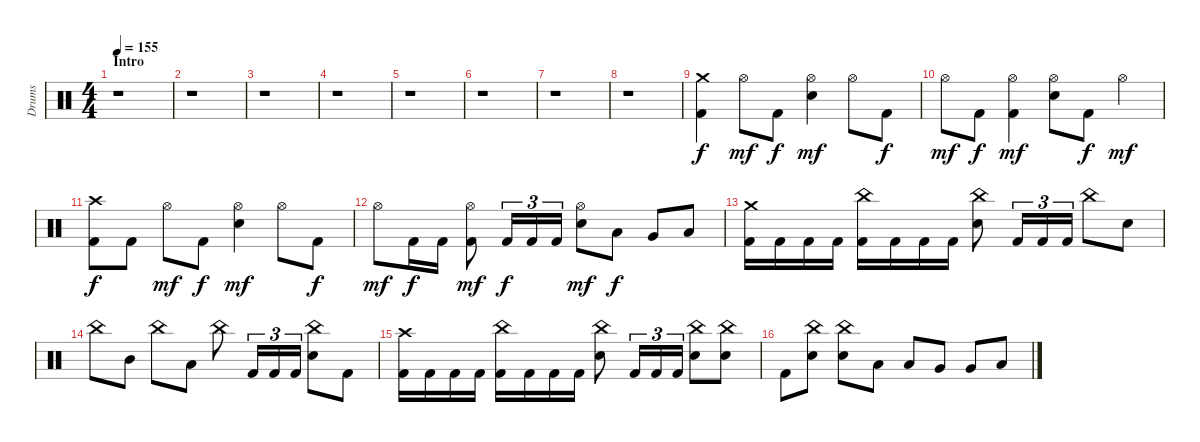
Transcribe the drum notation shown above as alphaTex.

\track ("Drums" "Drums") {instrument percussion}
\staff {score}
\articulation defaults
\ts (4 4)
\section ("" "Intro")
\tempo 155
\clef neutral
\ks c
r.1{dy f} |
r.1 |
r.1 |
r.1 |
r.1 |
r.1 |
r.1 |
r.1 |
("Kick (hit) 2" "Crash medium (hit)").4 "Hi-Hat (open)".8{dy mf} "Kick (hit) 2".8{dy f} ("Hi-Hat (open)" "Electric Snare (hit)").4{dy mf} "Hi-Hat (open)".8 "Kick (hit) 2".8{dy f} |
"Hi-Hat (open)".8{dy mf} "Kick (hit) 2".8{dy f} ("Kick (hit) 2" "Hi-Hat (open)").4{dy mf} ("Hi-Hat (open)" "Electric Snare (hit)").8 "Kick (hit) 2".8{dy f} "Hi-Hat (open)".4{dy mf} |
("Kick (hit) 2" "Crash high (hit)").8{dy f} "Kick (hit) 2".8 "Hi-Hat (open)".8{dy mf} "Kick (hit) 2".8{dy f} ("Hi-Hat (open)" "Electric Snare (hit)").4{dy mf} "Hi-Hat (open)".8 "Kick (hit) 2".8{dy f} |
"Hi-Hat (open)".8{dy mf} "Kick (hit) 2".16{dy f} "Kick (hit) 2".16 ("Kick (hit) 2" "Hi-Hat (open)").8{dy mf} "Kick (hit) 2".16{tu (3 2) dy f} "Kick (hit) 2".16{tu (3 2)} "Kick (hit) 2".16{tu (3 2)} ("Hi-Hat (open)" "Electric Snare (hit)").8{dy mf} "Low Tom (hit)".8{dy f} "Very Low Tom (hit)".8 "Low Floor Tom (hit)".8 |
("Kick (hit) 2" "Crash medium (hit)").16 "Kick (hit) 2".16 "Kick (hit) 2".16 "Kick (hit) 2".16 ("Kick (hit) 2" "China (hit)").16 "Kick (hit) 2".16 "Kick (hit) 2".16 "Kick (hit) 2".16 ("China (hit)" "Electric Snare (hit)").8 "Kick (hit) 2".16{tu (3 2)} "Kick (hit) 2".16{tu (3 2)} "Kick (hit) 2".16{tu (3 2)} "China (hit)".8 "Electric Snare (hit)".8 |
"China (hit)".8 "Mid Tom (hit)".8 "China (hit)".8 "Low Tom (hit)".8 "China (hit)".8 "Kick (hit) 2".16{tu (3 2)} "Kick (hit) 2".16{tu (3 2)} "Kick (hit) 2".16{tu (3 2)} ("China (hit)" "Electric Snare (hit)").8 "Kick (hit) 2".8 |
("Kick (hit) 2" "Crash high (hit)").16 "Kick (hit) 2".16 "Kick (hit) 2".16 "Kick (hit) 2".16 ("Kick (hit) 2" "China (hit)").16 "Kick (hit) 2".16 "Kick (hit) 2".16 "Kick (hit) 2".16 ("China (hit)" "Electric Snare (hit)").8 "Kick (hit) 2".16{tu (3 2)} "Kick (hit) 2".16{tu (3 2)} "Kick (hit) 2".16{tu (3 2)} ("China (hit)" "Electric Snare (hit)").8 ("China (hit)" "Electric Snare (hit)").8 |
"Kick (hit) 2".8 ("China (hit)" "Electric Snare (hit)").8 ("China (hit)" "Electric Snare (hit)").8 "Low Tom (hit)".8 "Low Tom (hit)".8 "Very Low Tom (hit)".8 "Very Low Tom (hit)".8 "Low Floor Tom (hit)".8
